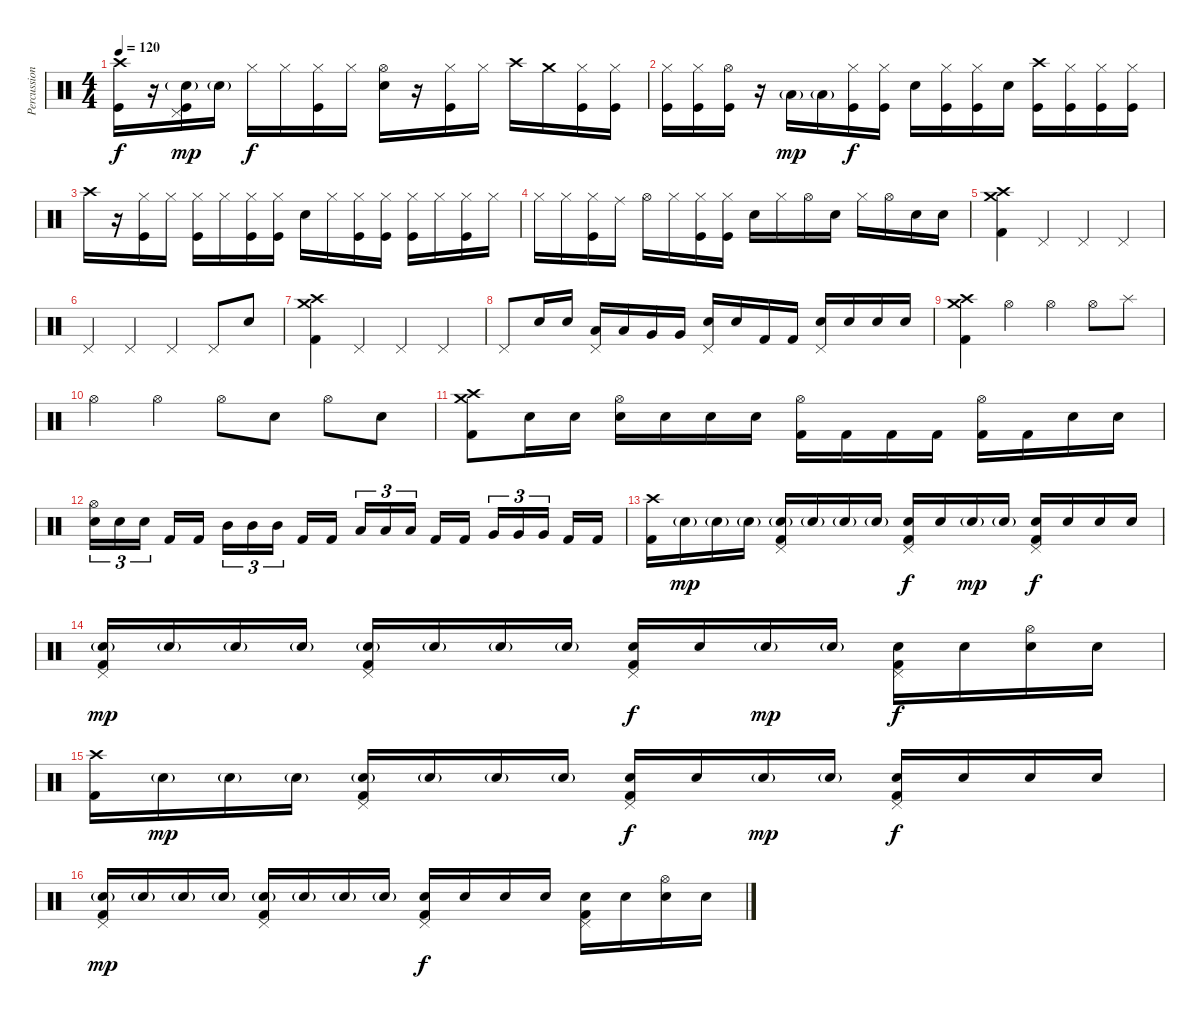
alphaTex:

\track ("Percussion" "Percussion") {instrument percussion}
\staff {score}
\articulation defaults
\ts (4 4)
\tempo 120
\clef neutral
\ks c
("Crash high (hit)" "Kick (hit)").16{dy f} r.16 ("Pedal Hi-Hat (hit)" "Electric Snare (hit)"{g} "Kick (hit)").16{dy mp} "Electric Snare (hit)"{g}.16 "Hi-Hat (closed)".16{dy f} "Hi-Hat (closed)".16 ("Hi-Hat (closed)" "Kick (hit)").16 "Hi-Hat (closed)".16 ("Hi-Hat (open)" "Electric Snare (hit)").16 r.16 ("Hi-Hat (closed)" "Kick (hit)").16 "Hi-Hat (closed)".16 "Crash high (hit)".16 "Crash medium (hit)".16 ("Hi-Hat (closed)" "Kick (hit)").16 ("Hi-Hat (closed)" "Kick (hit)").16 |
("Hi-Hat (closed)" "Kick (hit)").16 ("Hi-Hat (closed)" "Kick (hit)").16 ("Hi-Hat (open)" "Kick (hit)").16 r.16 "Low Tom (hit)"{g}.16{dy mp} "Low Tom (hit)"{g}.16 ("Hi-Hat (closed)" "Kick (hit)").16{dy f} ("Hi-Hat (closed)" "Kick (hit)").16 "Electric Snare (hit)".16 ("Hi-Hat (closed)" "Kick (hit)").16 ("Hi-Hat (closed)" "Kick (hit)").16 "Electric Snare (hit)".16 ("Crash high (hit)" "Kick (hit)").16 ("Hi-Hat (closed)" "Kick (hit)").16 ("Hi-Hat (closed)" "Kick (hit)").16 ("Hi-Hat (closed)" "Kick (hit)").16 |
"Crash high (hit)".16 r.16 ("Hi-Hat (closed)" "Kick (hit)").16 "Hi-Hat (closed)".16 ("Hi-Hat (closed)" "Kick (hit)").16 "Hi-Hat (closed)".16 ("Hi-Hat (closed)" "Kick (hit)").16 ("Hi-Hat (closed)" "Kick (hit)").16 "Electric Snare (hit)".16 "Hi-Hat (closed)".16 ("Hi-Hat (closed)" "Kick (hit)").16 ("Hi-Hat (closed)" "Kick (hit)").16 ("Hi-Hat (closed)" "Kick (hit)").16 "Hi-Hat (closed)".16 ("Hi-Hat (closed)" "Kick (hit)").16 "Hi-Hat (closed)".16 |
"Hi-Hat (closed)".16 "Hi-Hat (closed)".16 ("Hi-Hat (closed)" "Kick (hit)").16 "Ride (middle)".16 "Hi-Hat (open)".16 "Hi-Hat (closed)".16 ("Hi-Hat (closed)" "Kick (hit)").16 ("Hi-Hat (closed)" "Kick (hit)").16 "Electric Snare (hit)".16 "Hi-Hat (closed)".16 "Hi-Hat (open)".16 "Electric Snare (hit)".16 "Hi-Hat (closed)".16 "Hi-Hat (open)".16 "Electric Snare (hit)".16 "Electric Snare (hit)".16 |
("Crash high (hit)" "Crash medium (hit)" "Kick (hit) 2").4 "Pedal Hi-Hat (hit)".4 "Pedal Hi-Hat (hit)".4 "Pedal Hi-Hat (hit)".4 |
"Pedal Hi-Hat (hit)".4 "Pedal Hi-Hat (hit)".4 "Pedal Hi-Hat (hit)".4 "Pedal Hi-Hat (hit)".8 "Electric Snare (hit)".8 |
("Crash high (hit)" "Crash medium (hit)" "Kick (hit) 2").4 "Pedal Hi-Hat (hit)".4 "Pedal Hi-Hat (hit)".4 "Pedal Hi-Hat (hit)".4 |
"Pedal Hi-Hat (hit)".8 "Electric Snare (hit)".16 "Electric Snare (hit)".16 ("Pedal Hi-Hat (hit)" "Low Tom (hit)").16 "Low Tom (hit)".16 "Very Low Tom (hit)".16 "Very Low Tom (hit)".16 ("Pedal Hi-Hat (hit)" "Electric Snare (hit)").16 "Electric Snare (hit)".16 "Kick (hit) 2".16 "Kick (hit) 2".16 ("Pedal Hi-Hat (hit)" "Electric Snare (hit)").16 "Electric Snare (hit)".16 "Electric Snare (hit)".16 "Electric Snare (hit)".16 |
("Crash high (hit)" "Crash medium (hit)" "Kick (hit) 2").4 "Hi-Hat (open)".4 "Hi-Hat (open)".4 "Hi-Hat (open)".8 "Splash (hit)".8 |
"Hi-Hat (open)".4 "Hi-Hat (open)".4 "Hi-Hat (open)".8 "Electric Snare (hit)".8 "Hi-Hat (open)".8 "Electric Snare (hit)".8 |
("Crash high (hit)" "Crash medium (hit)" "Kick (hit) 2").8 "Electric Snare (hit)".16 "Electric Snare (hit)".16 ("Hi-Hat (open)" "Electric Snare (hit)").16 "Electric Snare (hit)".16 "Electric Snare (hit)".16 "Electric Snare (hit)".16 ("Hi-Hat (open)" "Kick (hit) 2").16 "Kick (hit) 2".16 "Kick (hit) 2".16 "Kick (hit) 2".16 ("Hi-Hat (open)" "Kick (hit) 2").16 "Kick (hit) 2".16 "Electric Snare (hit)".16 "Electric Snare (hit)".16 |
("Hi-Hat (open)" "Electric Snare (hit)").16{tu (3 2)} "Electric Snare (hit)".16{tu (3 2)} "Electric Snare (hit)".16{tu (3 2) beam splitsecondary} "Kick (hit) 2".16 "Kick (hit) 2".16 "Mid Tom (hit)".16{tu (3 2)} "Mid Tom (hit)".16{tu (3 2)} "Mid Tom (hit)".16{tu (3 2) beam splitsecondary} "Kick (hit) 2".16 "Kick (hit) 2".16 "Low Tom (hit)".16{tu (3 2)} "Low Tom (hit)".16{tu (3 2)} "Low Tom (hit)".16{tu (3 2) beam splitsecondary} "Kick (hit) 2".16 "Kick (hit) 2".16 "Very Low Tom (hit)".16{tu (3 2)} "Very Low Tom (hit)".16{tu (3 2)} "Very Low Tom (hit)".16{tu (3 2) beam splitsecondary} "Kick (hit) 2".16 "Kick (hit) 2".16 |
("Crash high (hit)" "Kick (hit) 2").16 "Electric Snare (hit)"{g}.16{dy mp} "Electric Snare (hit)"{g}.16 "Electric Snare (hit)"{g}.16 ("Pedal Hi-Hat (hit)" "Electric Snare (hit)"{g} "Kick (hit) 2").16 "Electric Snare (hit)"{g}.16 "Electric Snare (hit)"{g}.16 "Electric Snare (hit)"{g}.16 ("Pedal Hi-Hat (hit)" "Electric Snare (hit)" "Kick (hit) 2").16{dy f} "Electric Snare (hit)".16 "Electric Snare (hit)"{g}.16{dy mp} "Electric Snare (hit)"{g}.16 ("Pedal Hi-Hat (hit)" "Electric Snare (hit)" "Kick (hit) 2").16{dy f} "Electric Snare (hit)".16 "Electric Snare (hit)".16 "Electric Snare (hit)".16 |
("Pedal Hi-Hat (hit)" "Electric Snare (hit)"{g} "Kick (hit) 2").16{dy mp} "Electric Snare (hit)"{g}.16 "Electric Snare (hit)"{g}.16 "Electric Snare (hit)"{g}.16 ("Pedal Hi-Hat (hit)" "Electric Snare (hit)"{g} "Kick (hit) 2").16 "Electric Snare (hit)"{g}.16 "Electric Snare (hit)"{g}.16 "Electric Snare (hit)"{g}.16 ("Pedal Hi-Hat (hit)" "Electric Snare (hit)" "Kick (hit) 2").16{dy f} "Electric Snare (hit)".16 "Electric Snare (hit)"{g}.16{dy mp} "Electric Snare (hit)"{g}.16 ("Pedal Hi-Hat (hit)" "Electric Snare (hit)" "Kick (hit) 2").16{dy f} "Electric Snare (hit)".16 ("Hi-Hat (open)" "Electric Snare (hit)").16 "Electric Snare (hit)".16 |
("Crash high (hit)" "Kick (hit) 2").16 "Electric Snare (hit)"{g}.16{dy mp} "Electric Snare (hit)"{g}.16 "Electric Snare (hit)"{g}.16 ("Pedal Hi-Hat (hit)" "Electric Snare (hit)"{g} "Kick (hit) 2").16 "Electric Snare (hit)"{g}.16 "Electric Snare (hit)"{g}.16 "Electric Snare (hit)"{g}.16 ("Pedal Hi-Hat (hit)" "Electric Snare (hit)" "Kick (hit) 2").16{dy f} "Electric Snare (hit)".16 "Electric Snare (hit)"{g}.16{dy mp} "Electric Snare (hit)"{g}.16 ("Pedal Hi-Hat (hit)" "Electric Snare (hit)" "Kick (hit) 2").16{dy f} "Electric Snare (hit)".16 "Electric Snare (hit)".16 "Electric Snare (hit)".16 |
("Pedal Hi-Hat (hit)" "Electric Snare (hit)"{g} "Kick (hit) 2").16{dy mp} "Electric Snare (hit)"{g}.16 "Electric Snare (hit)"{g}.16 "Electric Snare (hit)"{g}.16 ("Pedal Hi-Hat (hit)" "Electric Snare (hit)"{g} "Kick (hit) 2").16 "Electric Snare (hit)"{g}.16 "Electric Snare (hit)"{g}.16 "Electric Snare (hit)"{g}.16 ("Pedal Hi-Hat (hit)" "Electric Snare (hit)" "Kick (hit) 2").16{dy f} "Electric Snare (hit)".16 "Electric Snare (hit)".16 "Electric Snare (hit)".16 ("Pedal Hi-Hat (hit)" "Electric Snare (hit)" "Kick (hit) 2").16 "Electric Snare (hit)".16 ("Hi-Hat (open)" "Electric Snare (hit)").16 "Electric Snare (hit)".16
